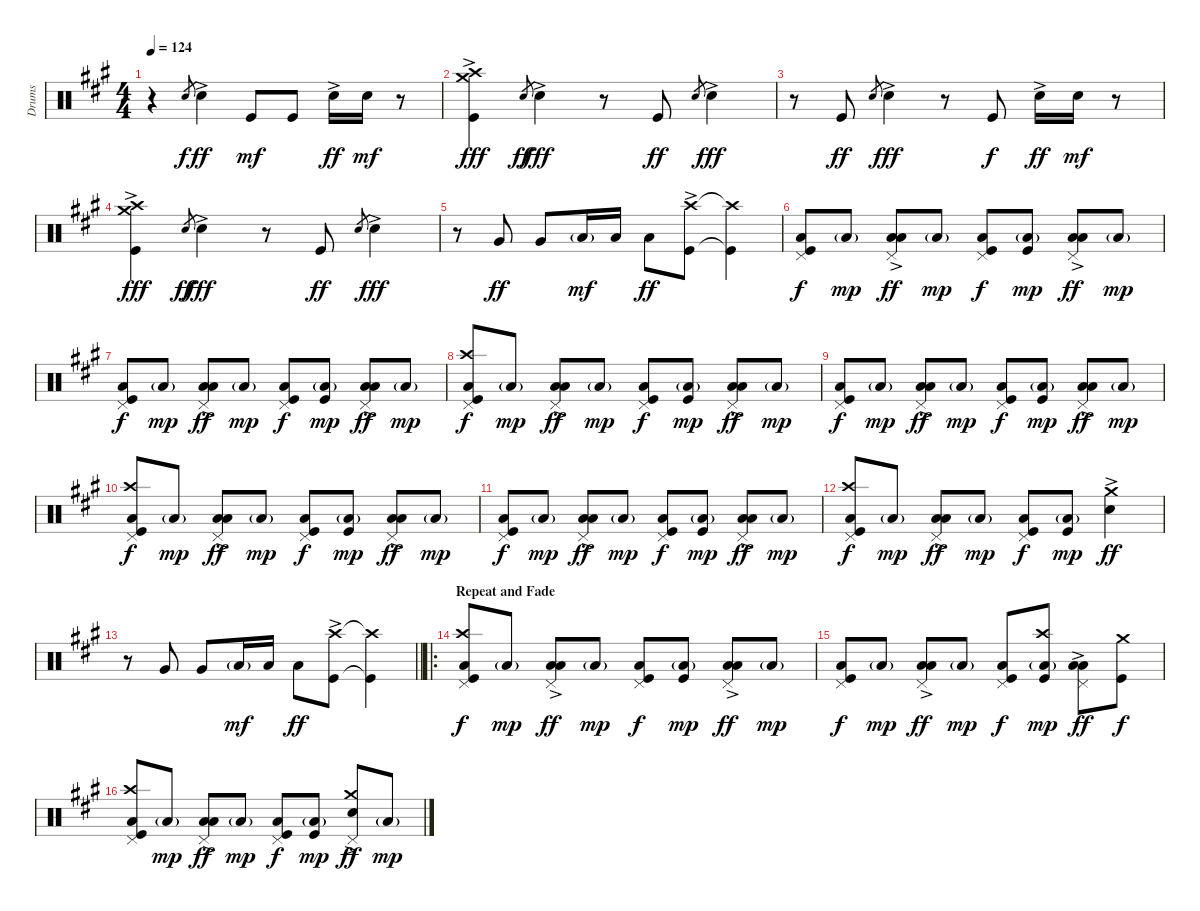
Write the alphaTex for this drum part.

\track ("Drums" "Drums") {instrument percussion}
\staff {score}
\articulation defaults
\ts (4 4)
\tempo 124
\clef neutral
\ks a
r.4{dy ff} "Snare (hit) 2".8{gr dy f} "Snare (hit) 2"{ac}.4{dy ff} "Kick (hit)".8{dy mf} "Kick (hit)".8 "Snare (hit) 2"{ac}.16{dy ff} "Snare (hit) 2".16{dy mf} r.8 |
("Crash high (hit)"{ac} "Crash medium (hit)"{ac} "Kick (hit)"{ac}).4{dy fff} "Snare (hit) 2".8{gr dy ff} "Snare (hit) 2"{ac}.4{dy fff} r.8 "Kick (hit)".8{dy ff} "Snare (hit) 2".8{gr} "Snare (hit) 2"{ac}.4{dy fff} |
r.8 "Kick (hit)".8{dy ff} "Snare (hit) 2".8{gr} "Snare (hit) 2"{ac}.4{dy fff} r.8 "Kick (hit)".8{dy f} "Snare (hit) 2"{ac}.16{dy ff} "Snare (hit) 2".16{dy mf} r.8 |
("Crash high (hit)"{ac} "Crash medium (hit)"{ac} "Kick (hit)"{ac}).4{dy fff} "Snare (hit) 2".8{gr dy ff} "Snare (hit) 2"{ac}.4{dy fff} r.8 "Kick (hit)".8{dy ff} "Snare (hit) 2".8{gr} "Snare (hit) 2"{ac}.4{dy fff} |
r.8 "Very Low Tom (hit)".8{dy ff} "Very Low Tom (hit)".8 "Low Floor Tom (hit)"{g}.16{dy mf} "Low Floor Tom (hit)".16 "Low Floor Tom (hit)".8{dy ff} ("Kick (hit)"{ac} "Crash high (hit)"{ac}).8 ("Kick (hit)"{t} "Crash high (hit)"{t}).4 |
("Kick (hit)" "Low Floor Tom (hit)" "Pedal Hi-Hat (hit)").8{dy f} "Low Floor Tom (hit)"{g}.8{dy mp} ("Low Tom (hit)"{ac} "Low Floor Tom (hit)" "Pedal Hi-Hat (hit)").8{dy ff} "Low Floor Tom (hit)"{g}.8{dy mp} ("Kick (hit)" "Low Floor Tom (hit)" "Pedal Hi-Hat (hit)").8{dy f} ("Kick (hit)" "Low Floor Tom (hit)"{g}).8{dy mp} ("Low Tom (hit)"{ac} "Low Floor Tom (hit)" "Pedal Hi-Hat (hit)").8{dy ff} "Low Floor Tom (hit)"{g}.8{dy mp} |
("Kick (hit)" "Low Floor Tom (hit)" "Pedal Hi-Hat (hit)").8{dy f} "Low Floor Tom (hit)"{g}.8{dy mp} ("Low Tom (hit)"{ac} "Low Floor Tom (hit)" "Pedal Hi-Hat (hit)").8{dy ff} "Low Floor Tom (hit)"{g}.8{dy mp} ("Kick (hit)" "Low Floor Tom (hit)" "Pedal Hi-Hat (hit)").8{dy f} ("Kick (hit)" "Low Floor Tom (hit)"{g}).8{dy mp} ("Low Tom (hit)"{ac} "Low Floor Tom (hit)" "Pedal Hi-Hat (hit)").8{dy ff} "Low Floor Tom (hit)"{g}.8{dy mp} |
("Kick (hit)" "Low Floor Tom (hit)" "Pedal Hi-Hat (hit)" "Crash high (hit)").8{dy f} "Low Floor Tom (hit)"{g}.8{dy mp} ("Low Tom (hit)"{ac} "Low Floor Tom (hit)" "Pedal Hi-Hat (hit)").8{dy ff} "Low Floor Tom (hit)"{g}.8{dy mp} ("Kick (hit)" "Low Floor Tom (hit)" "Pedal Hi-Hat (hit)").8{dy f} ("Kick (hit)" "Low Floor Tom (hit)"{g}).8{dy mp} ("Low Tom (hit)"{ac} "Low Floor Tom (hit)" "Pedal Hi-Hat (hit)").8{dy ff} "Low Floor Tom (hit)"{g}.8{dy mp} |
("Kick (hit)" "Low Floor Tom (hit)" "Pedal Hi-Hat (hit)").8{dy f} "Low Floor Tom (hit)"{g}.8{dy mp} ("Low Tom (hit)"{ac} "Low Floor Tom (hit)" "Pedal Hi-Hat (hit)").8{dy ff} "Low Floor Tom (hit)"{g}.8{dy mp} ("Kick (hit)" "Low Floor Tom (hit)" "Pedal Hi-Hat (hit)").8{dy f} ("Kick (hit)" "Low Floor Tom (hit)"{g}).8{dy mp} ("Low Tom (hit)"{ac} "Low Floor Tom (hit)" "Pedal Hi-Hat (hit)").8{dy ff} "Low Floor Tom (hit)"{g}.8{dy mp} |
("Kick (hit)" "Low Floor Tom (hit)" "Pedal Hi-Hat (hit)" "Crash high (hit)").8{dy f} "Low Floor Tom (hit)"{g}.8{dy mp} ("Low Tom (hit)"{ac} "Low Floor Tom (hit)" "Pedal Hi-Hat (hit)").8{dy ff} "Low Floor Tom (hit)"{g}.8{dy mp} ("Kick (hit)" "Low Floor Tom (hit)" "Pedal Hi-Hat (hit)").8{dy f} ("Kick (hit)" "Low Floor Tom (hit)"{g}).8{dy mp} ("Low Tom (hit)"{ac} "Low Floor Tom (hit)" "Pedal Hi-Hat (hit)").8{dy ff} "Low Floor Tom (hit)"{g}.8{dy mp} |
("Kick (hit)" "Low Floor Tom (hit)" "Pedal Hi-Hat (hit)").8{dy f} "Low Floor Tom (hit)"{g}.8{dy mp} ("Low Tom (hit)"{ac} "Low Floor Tom (hit)" "Pedal Hi-Hat (hit)").8{dy ff} "Low Floor Tom (hit)"{g}.8{dy mp} ("Kick (hit)" "Low Floor Tom (hit)" "Pedal Hi-Hat (hit)").8{dy f} ("Kick (hit)" "Low Floor Tom (hit)"{g}).8{dy mp} ("Low Tom (hit)"{ac} "Low Floor Tom (hit)" "Pedal Hi-Hat (hit)").8{dy ff} "Low Floor Tom (hit)"{g}.8{dy mp} |
("Kick (hit)" "Low Floor Tom (hit)" "Pedal Hi-Hat (hit)" "Crash high (hit)").8{dy f} "Low Floor Tom (hit)"{g}.8{dy mp} ("Low Tom (hit)"{ac} "Low Floor Tom (hit)" "Pedal Hi-Hat (hit)").8{dy ff} "Low Floor Tom (hit)"{g}.8{dy mp} ("Kick (hit)" "Low Floor Tom (hit)" "Pedal Hi-Hat (hit)").8{dy f} ("Kick (hit)" "Low Floor Tom (hit)"{g}).8{dy mp} ("Snare (hit) 2"{ac} "Crash medium (hit)"{ac}).4{dy ff} |
\barLineRight lightlight
r.8 "Very Low Tom (hit)".8 "Very Low Tom (hit)".8 "Low Floor Tom (hit)"{g}.16{dy mf} "Low Floor Tom (hit)".16 "Low Floor Tom (hit)".8{dy ff} ("Kick (hit)"{ac} "Crash high (hit)"{ac}).8 ("Kick (hit)"{t} "Crash high (hit)"{t}).4 |
\ro
\section ("" "Repeat and Fade")
("Kick (hit)" "Low Floor Tom (hit)" "Pedal Hi-Hat (hit)" "Crash high (hit)").8{dy f} "Low Floor Tom (hit)"{g}.8{dy mp} ("Low Tom (hit)"{ac} "Low Floor Tom (hit)" "Pedal Hi-Hat (hit)").8{dy ff} "Low Floor Tom (hit)"{g}.8{dy mp} ("Kick (hit)" "Low Floor Tom (hit)" "Pedal Hi-Hat (hit)").8{dy f} ("Kick (hit)" "Low Floor Tom (hit)"{g}).8{dy mp} ("Low Tom (hit)"{ac} "Low Floor Tom (hit)" "Pedal Hi-Hat (hit)").8{dy ff} "Low Floor Tom (hit)"{g}.8{dy mp} |
("Kick (hit)" "Low Floor Tom (hit)" "Pedal Hi-Hat (hit)").8{dy f} "Low Floor Tom (hit)"{g}.8{dy mp} ("Low Tom (hit)"{ac} "Low Floor Tom (hit)" "Pedal Hi-Hat (hit)").8{dy ff} "Low Floor Tom (hit)"{g}.8{dy mp} ("Kick (hit)" "Low Floor Tom (hit)" "Pedal Hi-Hat (hit)").8{dy f} ("Kick (hit)" "Low Floor Tom (hit)"{g} "Crash high (hit)").8{dy mp} ("Low Tom (hit)"{ac} "Low Floor Tom (hit)" "Pedal Hi-Hat (hit)").8{dy ff} ("Kick (hit)" "Crash medium (hit)").8{dy f} |
("Kick (hit)" "Low Floor Tom (hit)" "Pedal Hi-Hat (hit)" "Crash high (hit)").8 "Low Floor Tom (hit)"{g}.8{dy mp} ("Low Tom (hit)"{ac} "Low Floor Tom (hit)" "Pedal Hi-Hat (hit)").8{dy ff} "Low Floor Tom (hit)"{g}.8{dy mp} ("Kick (hit)" "Low Floor Tom (hit)" "Pedal Hi-Hat (hit)").8{dy f} ("Kick (hit)" "Low Floor Tom (hit)"{g}).8{dy mp} ("Crash medium (hit)"{ac} "Snare (hit) 2" "Pedal Hi-Hat (hit)").8{dy ff} "Low Floor Tom (hit)"{g}.8{dy mp}
